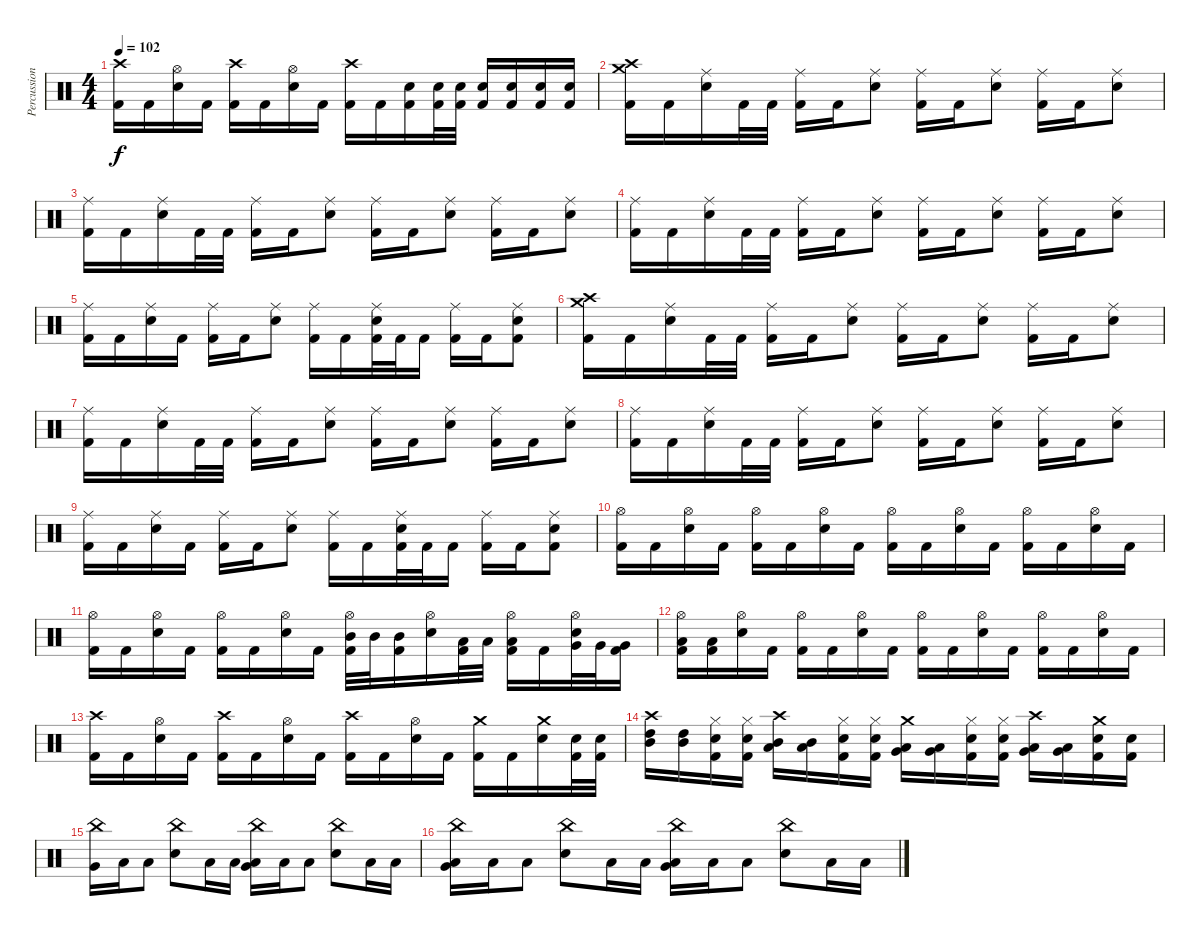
\track ("Percussion" "Percussion") {instrument percussion}
\staff {score}
\articulation defaults
\ts (4 4)
\tempo 102
\clef neutral
\ks c
("Crash high (hit)" "Kick (hit) 2").16{dy f} "Kick (hit) 2".16 ("Hi-Hat (open)" "Electric Snare (hit)").16 "Kick (hit) 2".16 ("Crash high (hit)" "Kick (hit) 2").16 "Kick (hit) 2".16 ("Hi-Hat (open)" "Electric Snare (hit)").16 "Kick (hit) 2".16 ("Crash high (hit)" "Kick (hit) 2").16 "Kick (hit) 2".16 ("Electric Snare (hit)" "Kick (hit) 2").16 ("Electric Snare (hit)" "Kick (hit) 2").32 ("Electric Snare (hit)" "Kick (hit) 2").32 ("Electric Snare (hit)" "Kick (hit) 2").16 ("Electric Snare (hit)" "Kick (hit) 2").16 ("Electric Snare (hit)" "Kick (hit) 2").16 ("Electric Snare (hit)" "Kick (hit) 2").16 |
("Crash medium (hit)" "Crash high (hit)" "Kick (hit) 2").16 "Kick (hit) 2".16 ("Ride (middle)" "Electric Snare (hit)").16 "Kick (hit) 2".32 "Kick (hit) 2".32 ("Ride (middle)" "Kick (hit) 2").16 "Kick (hit) 2".16 ("Ride (middle)" "Electric Snare (hit)").8 ("Ride (middle)" "Kick (hit) 2").16 "Kick (hit) 2".16 ("Ride (middle)" "Electric Snare (hit)").8 ("Ride (middle)" "Kick (hit) 2").16 "Kick (hit) 2".16 ("Ride (middle)" "Electric Snare (hit)").8 |
("Ride (middle)" "Kick (hit) 2").16 "Kick (hit) 2".16 ("Ride (middle)" "Electric Snare (hit)").16 "Kick (hit) 2".32 "Kick (hit) 2".32 ("Ride (middle)" "Kick (hit) 2").16 "Kick (hit) 2".16 ("Ride (middle)" "Electric Snare (hit)").8 ("Ride (middle)" "Kick (hit) 2").16 "Kick (hit) 2".16 ("Ride (middle)" "Electric Snare (hit)").8 ("Ride (middle)" "Kick (hit) 2").16 "Kick (hit) 2".16 ("Ride (middle)" "Electric Snare (hit)").8 |
("Ride (middle)" "Kick (hit) 2").16 "Kick (hit) 2".16 ("Ride (middle)" "Electric Snare (hit)").16 "Kick (hit) 2".32 "Kick (hit) 2".32 ("Ride (middle)" "Kick (hit) 2").16 "Kick (hit) 2".16 ("Ride (middle)" "Electric Snare (hit)").8 ("Ride (middle)" "Kick (hit) 2").16 "Kick (hit) 2".16 ("Ride (middle)" "Electric Snare (hit)").8 ("Ride (middle)" "Kick (hit) 2").16 "Kick (hit) 2".16 ("Ride (middle)" "Electric Snare (hit)").8 |
("Ride (middle)" "Kick (hit) 2").16 "Kick (hit) 2".16 ("Ride (middle)" "Electric Snare (hit)").16 "Kick (hit) 2".16 ("Ride (middle)" "Kick (hit) 2").16 "Kick (hit) 2".16 ("Ride (middle)" "Electric Snare (hit)").8 ("Ride (middle)" "Kick (hit) 2").16 "Kick (hit) 2".16 ("Ride (middle)" "Electric Snare (hit)" "Kick (hit) 2").32 "Kick (hit) 2".32 "Kick (hit) 2".16 ("Ride (middle)" "Kick (hit) 2").16 "Kick (hit) 2".16 ("Ride (middle)" "Electric Snare (hit)" "Kick (hit) 2").8 |
("Crash medium (hit)" "Crash high (hit)" "Kick (hit) 2").16 "Kick (hit) 2".16 ("Ride (middle)" "Electric Snare (hit)").16 "Kick (hit) 2".32 "Kick (hit) 2".32 ("Ride (middle)" "Kick (hit) 2").16 "Kick (hit) 2".16 ("Ride (middle)" "Electric Snare (hit)").8 ("Ride (middle)" "Kick (hit) 2").16 "Kick (hit) 2".16 ("Ride (middle)" "Electric Snare (hit)").8 ("Ride (middle)" "Kick (hit) 2").16 "Kick (hit) 2".16 ("Ride (middle)" "Electric Snare (hit)").8 |
("Ride (middle)" "Kick (hit) 2").16 "Kick (hit) 2".16 ("Ride (middle)" "Electric Snare (hit)").16 "Kick (hit) 2".32 "Kick (hit) 2".32 ("Ride (middle)" "Kick (hit) 2").16 "Kick (hit) 2".16 ("Ride (middle)" "Electric Snare (hit)").8 ("Ride (middle)" "Kick (hit) 2").16 "Kick (hit) 2".16 ("Ride (middle)" "Electric Snare (hit)").8 ("Ride (middle)" "Kick (hit) 2").16 "Kick (hit) 2".16 ("Ride (middle)" "Electric Snare (hit)").8 |
("Ride (middle)" "Kick (hit) 2").16 "Kick (hit) 2".16 ("Ride (middle)" "Electric Snare (hit)").16 "Kick (hit) 2".32 "Kick (hit) 2".32 ("Ride (middle)" "Kick (hit) 2").16 "Kick (hit) 2".16 ("Ride (middle)" "Electric Snare (hit)").8 ("Ride (middle)" "Kick (hit) 2").16 "Kick (hit) 2".16 ("Ride (middle)" "Electric Snare (hit)").8 ("Ride (middle)" "Kick (hit) 2").16 "Kick (hit) 2".16 ("Ride (middle)" "Electric Snare (hit)").8 |
("Ride (middle)" "Kick (hit) 2").16 "Kick (hit) 2".16 ("Ride (middle)" "Electric Snare (hit)").16 "Kick (hit) 2".16 ("Ride (middle)" "Kick (hit) 2").16 "Kick (hit) 2".16 ("Ride (middle)" "Electric Snare (hit)").8 ("Ride (middle)" "Kick (hit) 2").16 "Kick (hit) 2".16 ("Ride (middle)" "Electric Snare (hit)" "Kick (hit) 2").32 "Kick (hit) 2".32 "Kick (hit) 2".16 ("Ride (middle)" "Kick (hit) 2").16 "Kick (hit) 2".16 ("Ride (middle)" "Electric Snare (hit)" "Kick (hit) 2").8 |
("Hi-Hat (open)" "Kick (hit) 2").16 "Kick (hit) 2".16 ("Hi-Hat (open)" "Electric Snare (hit)").16 "Kick (hit) 2".16 ("Hi-Hat (open)" "Kick (hit) 2").16 "Kick (hit) 2".16 ("Hi-Hat (open)" "Electric Snare (hit)").16 "Kick (hit) 2".16 ("Hi-Hat (open)" "Kick (hit) 2").16 "Kick (hit) 2".16 ("Hi-Hat (open)" "Electric Snare (hit)").16 "Kick (hit) 2".16 ("Hi-Hat (open)" "Kick (hit) 2").16 "Kick (hit) 2".16 ("Hi-Hat (open)" "Electric Snare (hit)").16 "Kick (hit) 2".16 |
("Hi-Hat (open)" "Kick (hit) 2").16 "Kick (hit) 2".16 ("Hi-Hat (open)" "Electric Snare (hit)").16 "Kick (hit) 2".16 ("Hi-Hat (open)" "Kick (hit) 2").16 "Kick (hit) 2".16 ("Hi-Hat (open)" "Electric Snare (hit)").16 "Kick (hit) 2".16 ("Hi-Hat (open)" "Mid Tom (hit)" "Kick (hit) 2").32 "Mid Tom (hit)".32 ("Mid Tom (hit)" "Kick (hit) 2").16 ("Hi-Hat (open)" "Electric Snare (hit)").16 ("Low Tom (hit)" "Kick (hit) 2").32 "Low Tom (hit)".32 ("Hi-Hat (open)" "Low Tom (hit)" "Kick (hit) 2").16 "Kick (hit) 2".16 ("Hi-Hat (open)" "Very Low Tom (hit)" "Electric Snare (hit)").32 "Very Low Tom (hit)".32 ("Very Low Tom (hit)" "Kick (hit) 2").16 |
("Hi-Hat (open)" "Low Floor Tom (hit)" "Kick (hit) 2").16 ("Low Floor Tom (hit)" "Kick (hit) 2").16 ("Hi-Hat (open)" "Electric Snare (hit)").16 "Kick (hit) 2".16 ("Hi-Hat (open)" "Kick (hit) 2").16 "Kick (hit) 2".16 ("Hi-Hat (open)" "Electric Snare (hit)").16 "Kick (hit) 2".16 ("Hi-Hat (open)" "Kick (hit) 2").16 "Kick (hit) 2".16 ("Hi-Hat (open)" "Electric Snare (hit)").16 "Kick (hit) 2".16 ("Hi-Hat (open)" "Kick (hit) 2").16 "Kick (hit) 2".16 ("Hi-Hat (open)" "Electric Snare (hit)").16 "Kick (hit) 2".16 |
("Crash high (hit)" "Kick (hit) 2").16 "Kick (hit) 2".16 ("Hi-Hat (open)" "Electric Snare (hit)").16 "Kick (hit) 2".16 ("Crash high (hit)" "Kick (hit) 2").16 "Kick (hit) 2".16 ("Hi-Hat (open)" "Electric Snare (hit)").16 "Kick (hit) 2".16 ("Crash high (hit)" "Kick (hit) 2").16 "Kick (hit) 2".16 ("Hi-Hat (open)" "Electric Snare (hit)").16 "Kick (hit) 2".16 ("Crash medium (hit)" "Kick (hit) 2").16 "Kick (hit) 2".16 ("Crash medium (hit)" "Electric Snare (hit)").16 ("Electric Snare (hit)" "Kick (hit) 2").32 ("Electric Snare (hit)" "Kick (hit) 2").32 |
("Crash high (hit)" "High Tom (hit)" "Mid Tom (hit)").16 ("High Tom (hit)" "Mid Tom (hit)").16 ("Hi-Hat (closed)" "Electric Snare (hit)" "Kick (hit) 2").16 ("Hi-Hat (closed)" "Electric Snare (hit)" "Kick (hit) 2").16 ("Crash high (hit)" "Mid Tom (hit)" "Low Tom (hit)").16 ("Mid Tom (hit)" "Low Tom (hit)").16 ("Hi-Hat (closed)" "Electric Snare (hit)" "Kick (hit) 2").16 ("Hi-Hat (closed)" "Electric Snare (hit)" "Kick (hit) 2").16 ("Crash medium (hit)" "Low Tom (hit)" "Very Low Tom (hit)").16 ("Low Tom (hit)" "Very Low Tom (hit)").16 ("Hi-Hat (closed)" "Electric Snare (hit)" "Kick (hit) 2").16 ("Hi-Hat (closed)" "Electric Snare (hit)" "Kick (hit) 2").16 ("Crash high (hit)" "Very Low Tom (hit)" "Low Floor Tom (hit)").16 ("Very Low Tom (hit)" "Low Floor Tom (hit)").16 ("Crash medium (hit)" "Electric Snare (hit)" "Kick (hit) 2").16 ("Electric Snare (hit)" "Kick (hit) 2").16 |
("China (hit)" "Very Low Tom (hit)").16{volume 15} "Low Floor Tom (hit)".16 "Low Floor Tom (hit)".8 ("China (hit)" "Electric Snare (hit)").8 "Low Floor Tom (hit)".16 "Low Floor Tom (hit)".16 ("China (hit)" "Very Low Tom (hit)" "Low Tom (hit)").16 "Low Floor Tom (hit)".16 "Low Floor Tom (hit)".8 ("China (hit)" "Electric Snare (hit)").8 "Low Floor Tom (hit)".16 "Low Floor Tom (hit)".16 |
("China (hit)" "Very Low Tom (hit)" "Low Tom (hit)").16 "Low Floor Tom (hit)".16 "Low Floor Tom (hit)".8 ("China (hit)" "Electric Snare (hit)").8 "Low Floor Tom (hit)".16 "Low Floor Tom (hit)".16 ("China (hit)" "Very Low Tom (hit)" "Low Tom (hit)").16 "Low Floor Tom (hit)".16 "Low Floor Tom (hit)".8 ("China (hit)" "Electric Snare (hit)").8 "Low Floor Tom (hit)".16 "Low Floor Tom (hit)".16
